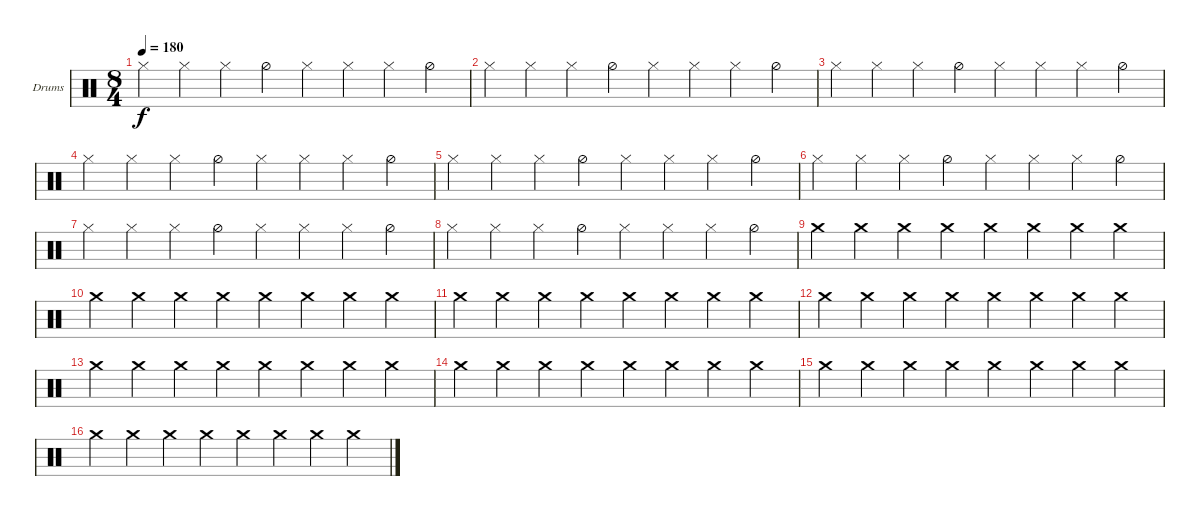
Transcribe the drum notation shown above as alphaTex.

\defaultSystemsLayout 4
\bracketExtendMode groupsimilarinstruments
\firstSystemTrackNameOrientation horizontal
\otherSystemsTrackNameOrientation horizontal
\track ("Drumkit" "Drums") {instrument percussion}
\staff {score}
\articulation defaults
\ts (8 4)
\tempo 180
\clef neutral
\ks c "Hi-Hat (closed)".4{dy f} "Hi-Hat (closed)".4 "Hi-Hat (closed)".4 "Hi-Hat (half)".4 "Hi-Hat (closed)".4 "Hi-Hat (closed)".4 "Hi-Hat (closed)".4 "Hi-Hat (half)".4
|
"Hi-Hat (closed)".4 "Hi-Hat (closed)".4 "Hi-Hat (closed)".4 "Hi-Hat (half)".4 "Hi-Hat (closed)".4 "Hi-Hat (closed)".4 "Hi-Hat (closed)".4 "Hi-Hat (half)".4 |
"Hi-Hat (closed)".4 "Hi-Hat (closed)".4 "Hi-Hat (closed)".4 "Hi-Hat (half)".4 "Hi-Hat (closed)".4 "Hi-Hat (closed)".4 "Hi-Hat (closed)".4 "Hi-Hat (half)".4 |
"Hi-Hat (closed)".4 "Hi-Hat (closed)".4 "Hi-Hat (closed)".4 "Hi-Hat (half)".4 "Hi-Hat (closed)".4 "Hi-Hat (closed)".4 "Hi-Hat (closed)".4 "Hi-Hat (half)".4 |
"Hi-Hat (closed)".4 "Hi-Hat (closed)".4 "Hi-Hat (closed)".4 "Hi-Hat (half)".4 "Hi-Hat (closed)".4 "Hi-Hat (closed)".4 "Hi-Hat (closed)".4 "Hi-Hat (half)".4 |
"Hi-Hat (closed)".4 "Hi-Hat (closed)".4 "Hi-Hat (closed)".4 "Hi-Hat (half)".4 "Hi-Hat (closed)".4 "Hi-Hat (closed)".4 "Hi-Hat (closed)".4 "Hi-Hat (half)".4 |
"Hi-Hat (closed)".4 "Hi-Hat (closed)".4 "Hi-Hat (closed)".4 "Hi-Hat (half)".4 "Hi-Hat (closed)".4 "Hi-Hat (closed)".4 "Hi-Hat (closed)".4 "Hi-Hat (half)".4 |
"Hi-Hat (closed)".4 "Hi-Hat (closed)".4 "Hi-Hat (closed)".4 "Hi-Hat (half)".4 "Hi-Hat (closed)".4 "Hi-Hat (closed)".4 "Hi-Hat (closed)".4 "Hi-Hat (half)".4 |
"Crash medium (hit)".4 "Crash medium (hit)".4 "Crash medium (hit)".4 "Crash medium (hit)".4 "Crash medium (hit)".4 "Crash medium (hit)".4 "Crash medium (hit)".4 "Crash medium (hit)".4 |
"Crash medium (hit)".4 "Crash medium (hit)".4 "Crash medium (hit)".4 "Crash medium (hit)".4 "Crash medium (hit)".4 "Crash medium (hit)".4 "Crash medium (hit)".4 "Crash medium (hit)".4 |
"Crash medium (hit)".4 "Crash medium (hit)".4 "Crash medium (hit)".4 "Crash medium (hit)".4 "Crash medium (hit)".4 "Crash medium (hit)".4 "Crash medium (hit)".4 "Crash medium (hit)".4 |
"Crash medium (hit)".4 "Crash medium (hit)".4 "Crash medium (hit)".4 "Crash medium (hit)".4 "Crash medium (hit)".4 "Crash medium (hit)".4 "Crash medium (hit)".4 "Crash medium (hit)".4 |
"Crash medium (hit)".4 "Crash medium (hit)".4 "Crash medium (hit)".4 "Crash medium (hit)".4 "Crash medium (hit)".4 "Crash medium (hit)".4 "Crash medium (hit)".4 "Crash medium (hit)".4 |
"Crash medium (hit)".4 "Crash medium (hit)".4 "Crash medium (hit)".4 "Crash medium (hit)".4 "Crash medium (hit)".4 "Crash medium (hit)".4 "Crash medium (hit)".4 "Crash medium (hit)".4 |
"Crash medium (hit)".4 "Crash medium (hit)".4 "Crash medium (hit)".4 "Crash medium (hit)".4 "Crash medium (hit)".4 "Crash medium (hit)".4 "Crash medium (hit)".4 "Crash medium (hit)".4 |
"Crash medium (hit)".4 "Crash medium (hit)".4 "Crash medium (hit)".4 "Crash medium (hit)".4 "Crash medium (hit)".4 "Crash medium (hit)".4 "Crash medium (hit)".4 "Crash medium (hit)".4
